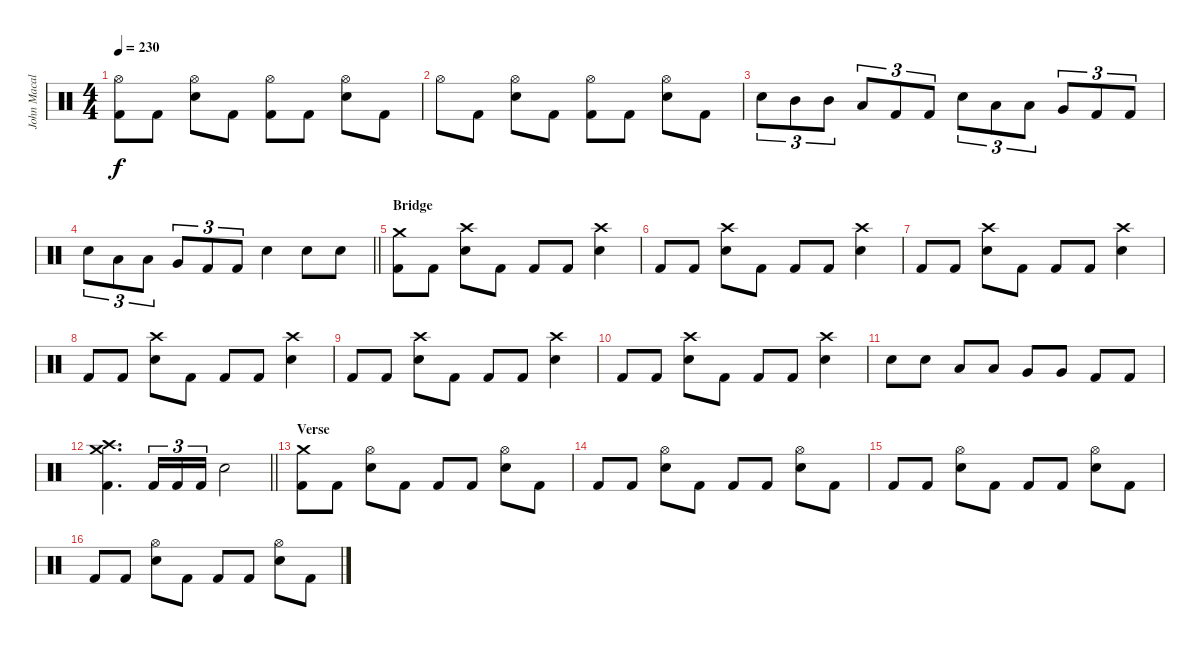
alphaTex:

\track ("John Macaluso" "John Macal") {instrument percussion}
\staff {score}
\articulation defaults
\ts (4 4)
\tempo 230
\clef neutral
\ks c
("Hi-Hat (open)" "Kick (hit) 2").8{dy f} "Kick (hit) 2".8 ("Hi-Hat (open)" "Snare (hit) 2").8 "Kick (hit) 2".8 ("Hi-Hat (open)" "Kick (hit) 2").8 "Kick (hit) 2".8 ("Hi-Hat (open)" "Snare (hit) 2").8 "Kick (hit) 2".8 |
"Hi-Hat (open)".8 "Kick (hit) 2".8 ("Hi-Hat (open)" "Snare (hit) 2").8 "Kick (hit) 2".8 ("Hi-Hat (open)" "Kick (hit) 2").8 "Kick (hit) 2".8 ("Hi-Hat (open)" "Snare (hit) 2").8 "Kick (hit) 2".8 |
"Snare (hit) 2".8{tu (3 2)} "Mid Tom (hit)".8{tu (3 2)} "Mid Tom (hit)".8{tu (3 2)} "Low Tom (hit)".8{tu (3 2)} "Kick (hit) 2".8{tu (3 2)} "Kick (hit) 2".8{tu (3 2)} "Snare (hit) 2".8{tu (3 2)} "Low Tom (hit)".8{tu (3 2)} "Low Tom (hit)".8{tu (3 2)} "Very Low Tom (hit)".8{tu (3 2)} "Kick (hit) 2".8{tu (3 2)} "Kick (hit) 2".8{tu (3 2)} |
\barLineRight lightlight "Snare (hit) 2".8{tu (3 2)} "Low Tom (hit)".8{tu (3 2)} "Low Tom (hit)".8{tu (3 2)} "Very Low Tom (hit)".8{tu (3 2)} "Kick (hit) 2".8{tu (3 2)} "Kick (hit) 2".8{tu (3 2)} "Snare (hit) 2".4 "Snare (hit) 2".8 "Snare (hit) 2".8
|
\section ("" "Bridge")
("Crash medium (hit)" "Kick (hit) 2").8 "Kick (hit) 2".8 ("Crash high (hit)" "Snare (hit) 2").8 "Kick (hit) 2".8 "Kick (hit) 2".8 "Kick (hit) 2".8 ("Crash high (hit)" "Snare (hit) 2").4 |
"Kick (hit) 2".8 "Kick (hit) 2".8 ("Crash high (hit)" "Snare (hit) 2").8 "Kick (hit) 2".8 "Kick (hit) 2".8 "Kick (hit) 2".8 ("Crash high (hit)" "Snare (hit) 2").4 |
"Kick (hit) 2".8 "Kick (hit) 2".8 ("Crash high (hit)" "Snare (hit) 2").8 "Kick (hit) 2".8 "Kick (hit) 2".8 "Kick (hit) 2".8 ("Crash high (hit)" "Snare (hit) 2").4 |
"Kick (hit) 2".8 "Kick (hit) 2".8 ("Crash high (hit)" "Snare (hit) 2").8 "Kick (hit) 2".8 "Kick (hit) 2".8 "Kick (hit) 2".8 ("Crash high (hit)" "Snare (hit) 2").4 |
"Kick (hit) 2".8 "Kick (hit) 2".8 ("Crash high (hit)" "Snare (hit) 2").8 "Kick (hit) 2".8 "Kick (hit) 2".8 "Kick (hit) 2".8 ("Crash high (hit)" "Snare (hit) 2").4 |
"Kick (hit) 2".8 "Kick (hit) 2".8 ("Crash high (hit)" "Snare (hit) 2").8 "Kick (hit) 2".8 "Kick (hit) 2".8 "Kick (hit) 2".8 ("Crash high (hit)" "Snare (hit) 2").4 |
"Snare (hit) 2".8 "Snare (hit) 2".8 "Low Tom (hit)".8 "Low Tom (hit)".8 "Very Low Tom (hit)".8 "Very Low Tom (hit)".8 "Kick (hit) 2".8 "Kick (hit) 2".8 |
\barLineRight lightlight
("Crash medium (hit)" "Crash high (hit)" "Kick (hit) 2").4{d} "Kick (hit) 2".16{tu (3 2)} "Kick (hit) 2".16{tu (3 2)} "Kick (hit) 2".16{tu (3 2)} "Snare (hit) 2".2 |
\section ("" "Verse")
("Crash medium (hit)" "Kick (hit) 2").8 "Kick (hit) 2".8 ("Hi-Hat (open)" "Snare (hit) 2").8 "Kick (hit) 2".8 "Kick (hit) 2".8 "Kick (hit) 2".8 ("Hi-Hat (open)" "Snare (hit) 2").8 "Kick (hit) 2".8 |
"Kick (hit) 2".8 "Kick (hit) 2".8 ("Hi-Hat (open)" "Snare (hit) 2").8 "Kick (hit) 2".8 "Kick (hit) 2".8 "Kick (hit) 2".8 ("Hi-Hat (open)" "Snare (hit) 2").8 "Kick (hit) 2".8 |
"Kick (hit) 2".8 "Kick (hit) 2".8 ("Hi-Hat (open)" "Snare (hit) 2").8 "Kick (hit) 2".8 "Kick (hit) 2".8 "Kick (hit) 2".8 ("Hi-Hat (open)" "Snare (hit) 2").8 "Kick (hit) 2".8 |
"Kick (hit) 2".8 "Kick (hit) 2".8 ("Hi-Hat (open)" "Snare (hit) 2").8 "Kick (hit) 2".8 "Kick (hit) 2".8 "Kick (hit) 2".8 ("Hi-Hat (open)" "Snare (hit) 2").8 "Kick (hit) 2".8
